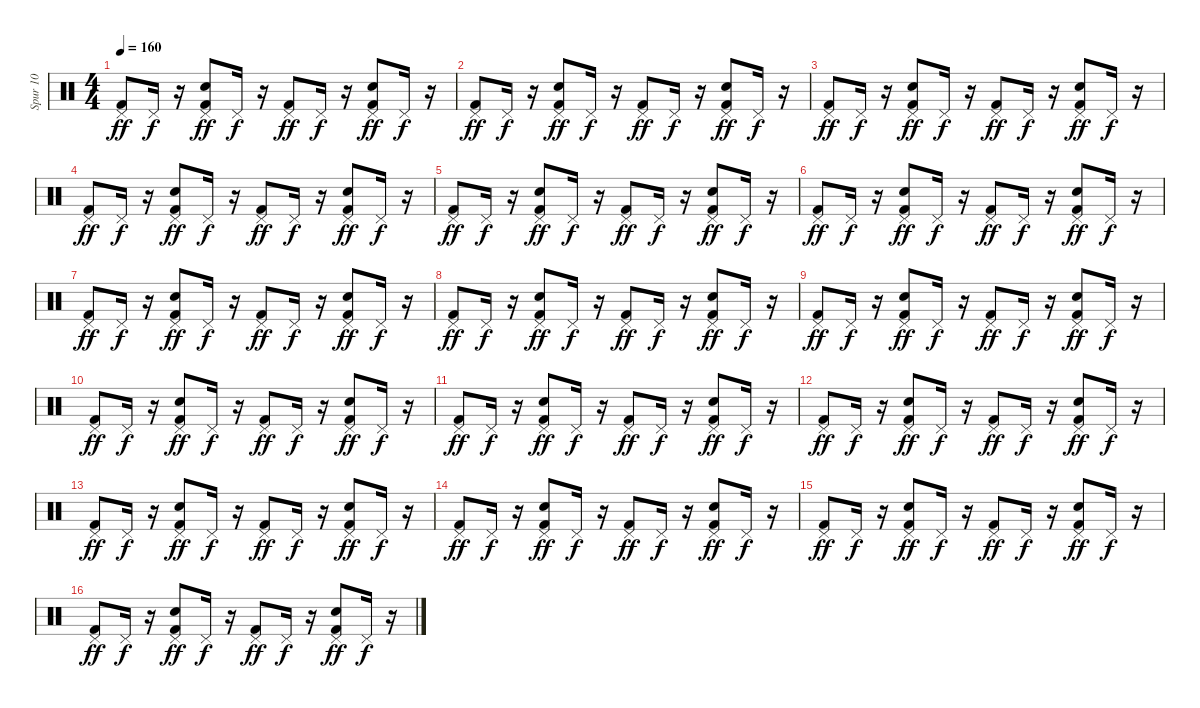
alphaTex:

\track ("Spur 10" "Spur 10") {instrument percussion}
\staff {score}
\articulation defaults
\ts (4 4)
\tempo 160
\clef neutral
\ks c
("Kick (hit) 2" "Pedal Hi-Hat (hit)").8{dy ff} "Pedal Hi-Hat (hit)".16{dy f} r.16 ("Kick (hit) 2" "Snare (hit) 2" "Pedal Hi-Hat (hit)").8{dy ff} "Pedal Hi-Hat (hit)".16{dy f} r.16 ("Kick (hit) 2" "Pedal Hi-Hat (hit)").8{dy ff} "Pedal Hi-Hat (hit)".16{dy f} r.16 ("Snare (hit) 2" "Kick (hit) 2" "Pedal Hi-Hat (hit)").8{dy ff} "Pedal Hi-Hat (hit)".16{dy f} r.16 |
("Kick (hit) 2" "Pedal Hi-Hat (hit)").8{dy ff} "Pedal Hi-Hat (hit)".16{dy f} r.16 ("Kick (hit) 2" "Snare (hit) 2" "Pedal Hi-Hat (hit)").8{dy ff} "Pedal Hi-Hat (hit)".16{dy f} r.16 ("Kick (hit) 2" "Pedal Hi-Hat (hit)").8{dy ff} "Pedal Hi-Hat (hit)".16{dy f} r.16 ("Snare (hit) 2" "Kick (hit) 2" "Pedal Hi-Hat (hit)").8{dy ff} "Pedal Hi-Hat (hit)".16{dy f} r.16 |
("Kick (hit) 2" "Pedal Hi-Hat (hit)").8{dy ff} "Pedal Hi-Hat (hit)".16{dy f} r.16 ("Kick (hit) 2" "Snare (hit) 2" "Pedal Hi-Hat (hit)").8{dy ff} "Pedal Hi-Hat (hit)".16{dy f} r.16 ("Kick (hit) 2" "Pedal Hi-Hat (hit)").8{dy ff} "Pedal Hi-Hat (hit)".16{dy f} r.16 ("Snare (hit) 2" "Kick (hit) 2" "Pedal Hi-Hat (hit)").8{dy ff} "Pedal Hi-Hat (hit)".16{dy f} r.16 |
("Kick (hit) 2" "Pedal Hi-Hat (hit)").8{dy ff} "Pedal Hi-Hat (hit)".16{dy f} r.16 ("Snare (hit) 2" "Kick (hit) 2" "Pedal Hi-Hat (hit)").8{dy ff} "Pedal Hi-Hat (hit)".16{dy f} r.16 ("Kick (hit) 2" "Pedal Hi-Hat (hit)").8{dy ff} "Pedal Hi-Hat (hit)".16{dy f} r.16 ("Kick (hit) 2" "Snare (hit) 2" "Pedal Hi-Hat (hit)").8{dy ff} "Pedal Hi-Hat (hit)".16{dy f} r.16 |
("Kick (hit) 2" "Pedal Hi-Hat (hit)").8{dy ff} "Pedal Hi-Hat (hit)".16{dy f} r.16 ("Kick (hit) 2" "Snare (hit) 2" "Pedal Hi-Hat (hit)").8{dy ff} "Pedal Hi-Hat (hit)".16{dy f} r.16 ("Kick (hit) 2" "Pedal Hi-Hat (hit)").8{dy ff} "Pedal Hi-Hat (hit)".16{dy f} r.16 ("Kick (hit) 2" "Snare (hit) 2" "Pedal Hi-Hat (hit)").8{dy ff} "Pedal Hi-Hat (hit)".16{dy f} r.16 |
("Kick (hit) 2" "Pedal Hi-Hat (hit)").8{dy ff} "Pedal Hi-Hat (hit)".16{dy f} r.16 ("Kick (hit) 2" "Snare (hit) 2" "Pedal Hi-Hat (hit)").8{dy ff} "Pedal Hi-Hat (hit)".16{dy f} r.16 ("Kick (hit) 2" "Pedal Hi-Hat (hit)").8{dy ff} "Pedal Hi-Hat (hit)".16{dy f} r.16 ("Snare (hit) 2" "Kick (hit) 2" "Pedal Hi-Hat (hit)").8{dy ff} "Pedal Hi-Hat (hit)".16{dy f} r.16 |
("Kick (hit) 2" "Pedal Hi-Hat (hit)").8{dy ff} "Pedal Hi-Hat (hit)".16{dy f} r.16 ("Snare (hit) 2" "Kick (hit) 2" "Pedal Hi-Hat (hit)").8{dy ff} "Pedal Hi-Hat (hit)".16{dy f} r.16 ("Kick (hit) 2" "Pedal Hi-Hat (hit)").8{dy ff} "Pedal Hi-Hat (hit)".16{dy f} r.16 ("Kick (hit) 2" "Snare (hit) 2" "Pedal Hi-Hat (hit)").8{dy ff} "Pedal Hi-Hat (hit)".16{dy f} r.16 |
("Kick (hit) 2" "Pedal Hi-Hat (hit)").8{dy ff} "Pedal Hi-Hat (hit)".16{dy f} r.16 ("Kick (hit) 2" "Snare (hit) 2" "Pedal Hi-Hat (hit)").8{dy ff} "Pedal Hi-Hat (hit)".16{dy f} r.16 ("Kick (hit) 2" "Pedal Hi-Hat (hit)").8{dy ff} "Pedal Hi-Hat (hit)".16{dy f} r.16 ("Kick (hit) 2" "Snare (hit) 2" "Pedal Hi-Hat (hit)").8{dy ff} "Pedal Hi-Hat (hit)".16{dy f} r.16 |
("Kick (hit) 2" "Pedal Hi-Hat (hit)").8{dy ff} "Pedal Hi-Hat (hit)".16{dy f} r.16 ("Kick (hit) 2" "Snare (hit) 2" "Pedal Hi-Hat (hit)").8{dy ff} "Pedal Hi-Hat (hit)".16{dy f} r.16 ("Kick (hit) 2" "Pedal Hi-Hat (hit)").8{dy ff} "Pedal Hi-Hat (hit)".16{dy f} r.16 ("Snare (hit) 2" "Kick (hit) 2" "Pedal Hi-Hat (hit)").8{dy ff} "Pedal Hi-Hat (hit)".16{dy f} r.16 |
("Kick (hit) 2" "Pedal Hi-Hat (hit)").8{dy ff} "Pedal Hi-Hat (hit)".16{dy f} r.16 ("Kick (hit) 2" "Snare (hit) 2" "Pedal Hi-Hat (hit)").8{dy ff} "Pedal Hi-Hat (hit)".16{dy f} r.16 ("Kick (hit) 2" "Pedal Hi-Hat (hit)").8{dy ff} "Pedal Hi-Hat (hit)".16{dy f} r.16 ("Snare (hit) 2" "Kick (hit) 2" "Pedal Hi-Hat (hit)").8{dy ff} "Pedal Hi-Hat (hit)".16{dy f} r.16 |
("Kick (hit) 2" "Pedal Hi-Hat (hit)").8{dy ff} "Pedal Hi-Hat (hit)".16{dy f} r.16 ("Kick (hit) 2" "Snare (hit) 2" "Pedal Hi-Hat (hit)").8{dy ff} "Pedal Hi-Hat (hit)".16{dy f} r.16 ("Kick (hit) 2" "Pedal Hi-Hat (hit)").8{dy ff} "Pedal Hi-Hat (hit)".16{dy f} r.16 ("Snare (hit) 2" "Kick (hit) 2" "Pedal Hi-Hat (hit)").8{dy ff} "Pedal Hi-Hat (hit)".16{dy f} r.16 |
("Kick (hit) 2" "Pedal Hi-Hat (hit)").8{dy ff} "Pedal Hi-Hat (hit)".16{dy f} r.16 ("Snare (hit) 2" "Kick (hit) 2" "Pedal Hi-Hat (hit)").8{dy ff} "Pedal Hi-Hat (hit)".16{dy f} r.16 ("Kick (hit) 2" "Pedal Hi-Hat (hit)").8{dy ff} "Pedal Hi-Hat (hit)".16{dy f} r.16 ("Kick (hit) 2" "Snare (hit) 2" "Pedal Hi-Hat (hit)").8{dy ff} "Pedal Hi-Hat (hit)".16{dy f} r.16 |
("Kick (hit) 2" "Pedal Hi-Hat (hit)").8{dy ff} "Pedal Hi-Hat (hit)".16{dy f} r.16 ("Kick (hit) 2" "Snare (hit) 2" "Pedal Hi-Hat (hit)").8{dy ff} "Pedal Hi-Hat (hit)".16{dy f} r.16 ("Kick (hit) 2" "Pedal Hi-Hat (hit)").8{dy ff} "Pedal Hi-Hat (hit)".16{dy f} r.16 ("Kick (hit) 2" "Snare (hit) 2" "Pedal Hi-Hat (hit)").8{dy ff} "Pedal Hi-Hat (hit)".16{dy f} r.16 |
("Kick (hit) 2" "Pedal Hi-Hat (hit)").8{dy ff} "Pedal Hi-Hat (hit)".16{dy f} r.16 ("Kick (hit) 2" "Snare (hit) 2" "Pedal Hi-Hat (hit)").8{dy ff} "Pedal Hi-Hat (hit)".16{dy f} r.16 ("Kick (hit) 2" "Pedal Hi-Hat (hit)").8{dy ff} "Pedal Hi-Hat (hit)".16{dy f} r.16 ("Snare (hit) 2" "Kick (hit) 2" "Pedal Hi-Hat (hit)").8{dy ff} "Pedal Hi-Hat (hit)".16{dy f} r.16 |
("Kick (hit) 2" "Pedal Hi-Hat (hit)").8{dy ff} "Pedal Hi-Hat (hit)".16{dy f} r.16 ("Snare (hit) 2" "Kick (hit) 2" "Pedal Hi-Hat (hit)").8{dy ff} "Pedal Hi-Hat (hit)".16{dy f} r.16 ("Kick (hit) 2" "Pedal Hi-Hat (hit)").8{dy ff} "Pedal Hi-Hat (hit)".16{dy f} r.16 ("Kick (hit) 2" "Snare (hit) 2" "Pedal Hi-Hat (hit)").8{dy ff} "Pedal Hi-Hat (hit)".16{dy f} r.16 |
("Kick (hit) 2" "Pedal Hi-Hat (hit)").8{dy ff} "Pedal Hi-Hat (hit)".16{dy f} r.16 ("Kick (hit) 2" "Snare (hit) 2" "Pedal Hi-Hat (hit)").8{dy ff} "Pedal Hi-Hat (hit)".16{dy f} r.16 ("Kick (hit) 2" "Pedal Hi-Hat (hit)").8{dy ff} "Pedal Hi-Hat (hit)".16{dy f} r.16 ("Kick (hit) 2" "Snare (hit) 2" "Pedal Hi-Hat (hit)").8{dy ff} "Pedal Hi-Hat (hit)".16{dy f} r.16
